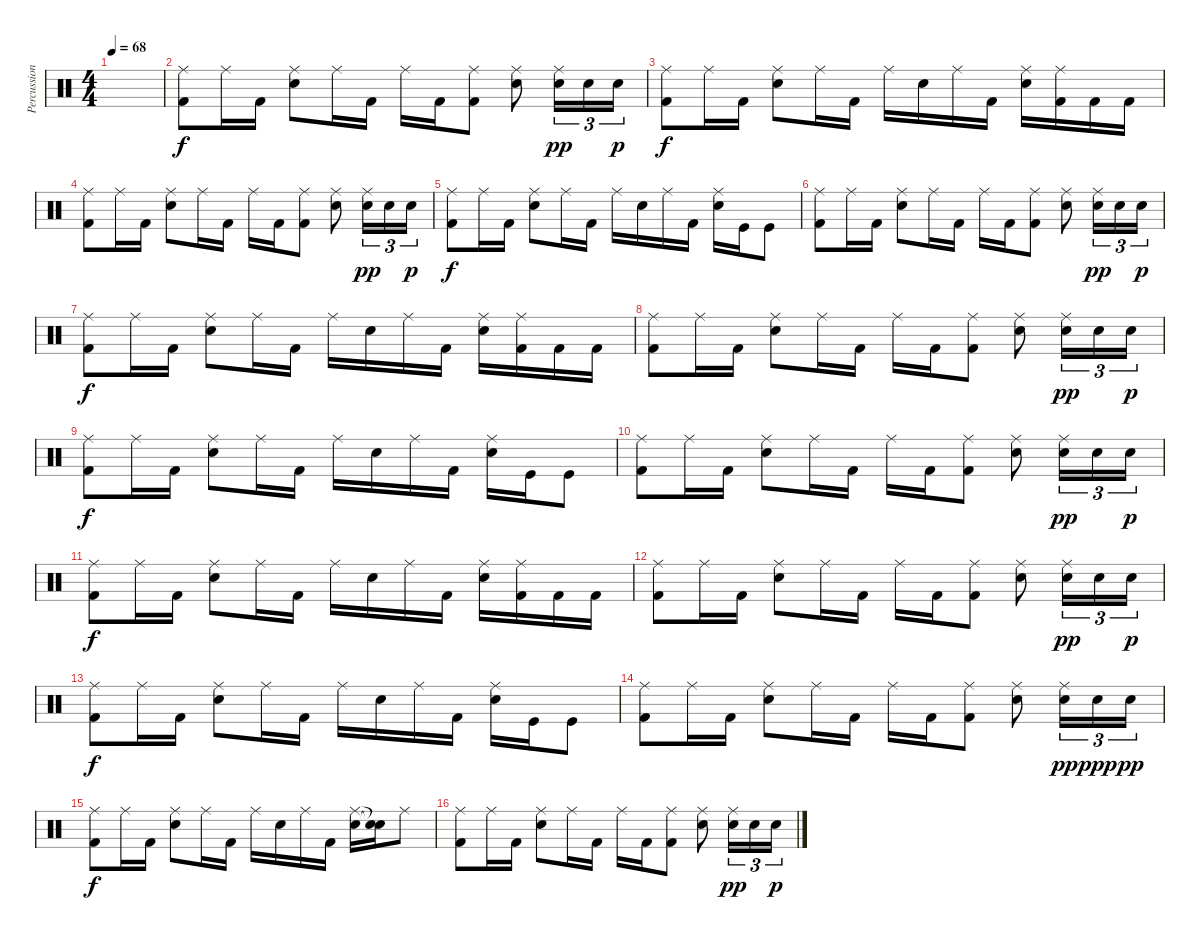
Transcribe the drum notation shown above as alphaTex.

\track ("Percussion" "Percussion") {instrument percussion}
\staff {score}
\articulation defaults
\ts (4 4)
\tempo 68
\clef neutral
\ks c
|
("Ride (middle)" "Kick (hit) 2").8 "Ride (middle)".16 "Kick (hit) 2".16 ("Ride (middle)" "Snare (hit) 2").8 "Ride (middle)".16 "Kick (hit) 2".16 "Ride (middle)".16 "Kick (hit) 2".16 ("Ride (middle)" "Kick (hit) 2").8 ("Ride (middle)" "Snare (hit) 2").8 ("Ride (middle)" "Snare (hit) 2").16{tu (3 2) dy pp} "Snare (hit) 2".16{tu (3 2)} "Snare (hit) 2".16{tu (3 2) dy p} |
("Ride (middle)" "Kick (hit) 2").8{dy f} "Ride (middle)".16 "Kick (hit) 2".16 ("Ride (middle)" "Snare (hit) 2").8 "Ride (middle)".16 "Kick (hit) 2".16 "Ride (middle)".16 "Snare (hit) 2".16 "Ride (middle)".16 "Kick (hit) 2".16 ("Ride (middle)" "Snare (hit) 2").16 ("Ride (middle)" "Kick (hit) 2").16 "Kick (hit) 2".16 "Kick (hit) 2".16 |
("Ride (middle)" "Kick (hit) 2").8 "Ride (middle)".16 "Kick (hit) 2".16 ("Ride (middle)" "Snare (hit) 2").8 "Ride (middle)".16 "Kick (hit) 2".16 "Ride (middle)".16 "Kick (hit) 2".16 ("Ride (middle)" "Kick (hit) 2").8 ("Ride (middle)" "Snare (hit) 2").8 ("Ride (middle)" "Snare (hit) 2").16{tu (3 2) dy pp} "Snare (hit) 2".16{tu (3 2)} "Snare (hit) 2".16{tu (3 2) dy p} |
("Ride (middle)" "Kick (hit) 2").8{dy f} "Ride (middle)".16 "Kick (hit) 2".16 ("Ride (middle)" "Snare (hit) 2").8 "Ride (middle)".16 "Kick (hit) 2".16 "Ride (middle)".16 "Snare (hit) 2".16 "Ride (middle)".16 "Kick (hit) 2".16 ("Ride (middle)" "Snare (hit) 2").16 "Kick (hit)".16 "Kick (hit)".8 |
("Ride (middle)" "Kick (hit) 2").8 "Ride (middle)".16 "Kick (hit) 2".16 ("Ride (middle)" "Snare (hit) 2").8 "Ride (middle)".16 "Kick (hit) 2".16 "Ride (middle)".16 "Kick (hit) 2".16 ("Ride (middle)" "Kick (hit) 2").8 ("Ride (middle)" "Snare (hit) 2").8 ("Ride (middle)" "Snare (hit) 2").16{tu (3 2) dy pp} "Snare (hit) 2".16{tu (3 2)} "Snare (hit) 2".16{tu (3 2) dy p} |
("Ride (middle)" "Kick (hit) 2").8{dy f} "Ride (middle)".16 "Kick (hit) 2".16 ("Ride (middle)" "Snare (hit) 2").8 "Ride (middle)".16 "Kick (hit) 2".16 "Ride (middle)".16 "Snare (hit) 2".16 "Ride (middle)".16 "Kick (hit) 2".16 ("Ride (middle)" "Snare (hit) 2").16 ("Ride (middle)" "Kick (hit) 2").16 "Kick (hit) 2".16 "Kick (hit) 2".16 |
("Ride (middle)" "Kick (hit) 2").8 "Ride (middle)".16 "Kick (hit) 2".16 ("Ride (middle)" "Snare (hit) 2").8 "Ride (middle)".16 "Kick (hit) 2".16 "Ride (middle)".16 "Kick (hit) 2".16 ("Ride (middle)" "Kick (hit) 2").8 ("Ride (middle)" "Snare (hit) 2").8 ("Ride (middle)" "Snare (hit) 2").16{tu (3 2) dy pp} "Snare (hit) 2".16{tu (3 2)} "Snare (hit) 2".16{tu (3 2) dy p} |
("Ride (middle)" "Kick (hit) 2").8{dy f} "Ride (middle)".16 "Kick (hit) 2".16 ("Ride (middle)" "Snare (hit) 2").8 "Ride (middle)".16 "Kick (hit) 2".16 "Ride (middle)".16 "Snare (hit) 2".16 "Ride (middle)".16 "Kick (hit) 2".16 ("Ride (middle)" "Snare (hit) 2").16 "Kick (hit)".16 "Kick (hit)".8 |
("Ride (middle)" "Kick (hit) 2").8 "Ride (middle)".16 "Kick (hit) 2".16 ("Ride (middle)" "Snare (hit) 2").8 "Ride (middle)".16 "Kick (hit) 2".16 "Ride (middle)".16 "Kick (hit) 2".16 ("Ride (middle)" "Kick (hit) 2").8 ("Ride (middle)" "Snare (hit) 2").8 ("Ride (middle)" "Snare (hit) 2").16{tu (3 2) dy pp} "Snare (hit) 2".16{tu (3 2)} "Snare (hit) 2".16{tu (3 2) dy p} |
("Ride (middle)" "Kick (hit) 2").8{dy f} "Ride (middle)".16 "Kick (hit) 2".16 ("Ride (middle)" "Snare (hit) 2").8 "Ride (middle)".16 "Kick (hit) 2".16 "Ride (middle)".16 "Snare (hit) 2".16 "Ride (middle)".16 "Kick (hit) 2".16 ("Ride (middle)" "Snare (hit) 2").16 ("Ride (middle)" "Kick (hit) 2").16 "Kick (hit) 2".16 "Kick (hit) 2".16 |
("Ride (middle)" "Kick (hit) 2").8 "Ride (middle)".16 "Kick (hit) 2".16 ("Ride (middle)" "Snare (hit) 2").8 "Ride (middle)".16 "Kick (hit) 2".16 "Ride (middle)".16 "Kick (hit) 2".16 ("Ride (middle)" "Kick (hit) 2").8 ("Ride (middle)" "Snare (hit) 2").8 ("Ride (middle)" "Snare (hit) 2").16{tu (3 2) dy pp} "Snare (hit) 2".16{tu (3 2)} "Snare (hit) 2".16{tu (3 2) dy p} |
("Ride (middle)" "Kick (hit) 2").8{dy f} "Ride (middle)".16 "Kick (hit) 2".16 ("Ride (middle)" "Snare (hit) 2").8 "Ride (middle)".16 "Kick (hit) 2".16 "Ride (middle)".16 "Snare (hit) 2".16 "Ride (middle)".16 "Kick (hit) 2".16 ("Ride (middle)" "Snare (hit) 2").16 "Kick (hit)".16 "Kick (hit)".8 |
("Ride (middle)" "Kick (hit) 2").8 "Ride (middle)".16 "Kick (hit) 2".16 ("Ride (middle)" "Snare (hit) 2").8 "Ride (middle)".16 "Kick (hit) 2".16 "Ride (middle)".16 "Kick (hit) 2".16 ("Ride (middle)" "Kick (hit) 2").8 ("Ride (middle)" "Snare (hit) 2").8 ("Ride (middle)" "Snare (hit) 2").16{tu (3 2) dy pp} "Snare (hit) 2".16{tu (3 2) dy ppp} "Snare (hit) 2".16{tu (3 2) dy pp} |
("Ride (middle)" "Kick (hit) 2").8{dy f} "Ride (middle)".16 "Kick (hit) 2".16 ("Ride (middle)" "Snare (hit) 2").8 "Ride (middle)".16 "Kick (hit) 2".16 "Ride (middle)".16 "Snare (hit) 2".16 "Ride (middle)".16 "Kick (hit) 2".16 ("Ride (middle)" "Snare (hit) 2").16 ("Snare (hit)"{t} "Snare (hit)"{t}).16 "Ride (middle)".8 |
("Ride (middle)" "Kick (hit) 2").8 "Ride (middle)".16 "Kick (hit) 2".16 ("Ride (middle)" "Snare (hit) 2").8 "Ride (middle)".16 "Kick (hit) 2".16 "Ride (middle)".16 "Kick (hit) 2".16 ("Ride (middle)" "Kick (hit) 2").8 ("Ride (middle)" "Snare (hit) 2").8 ("Ride (middle)" "Snare (hit) 2").16{tu (3 2) dy pp} "Snare (hit) 2".16{tu (3 2)} "Snare (hit) 2".16{tu (3 2) dy p}
